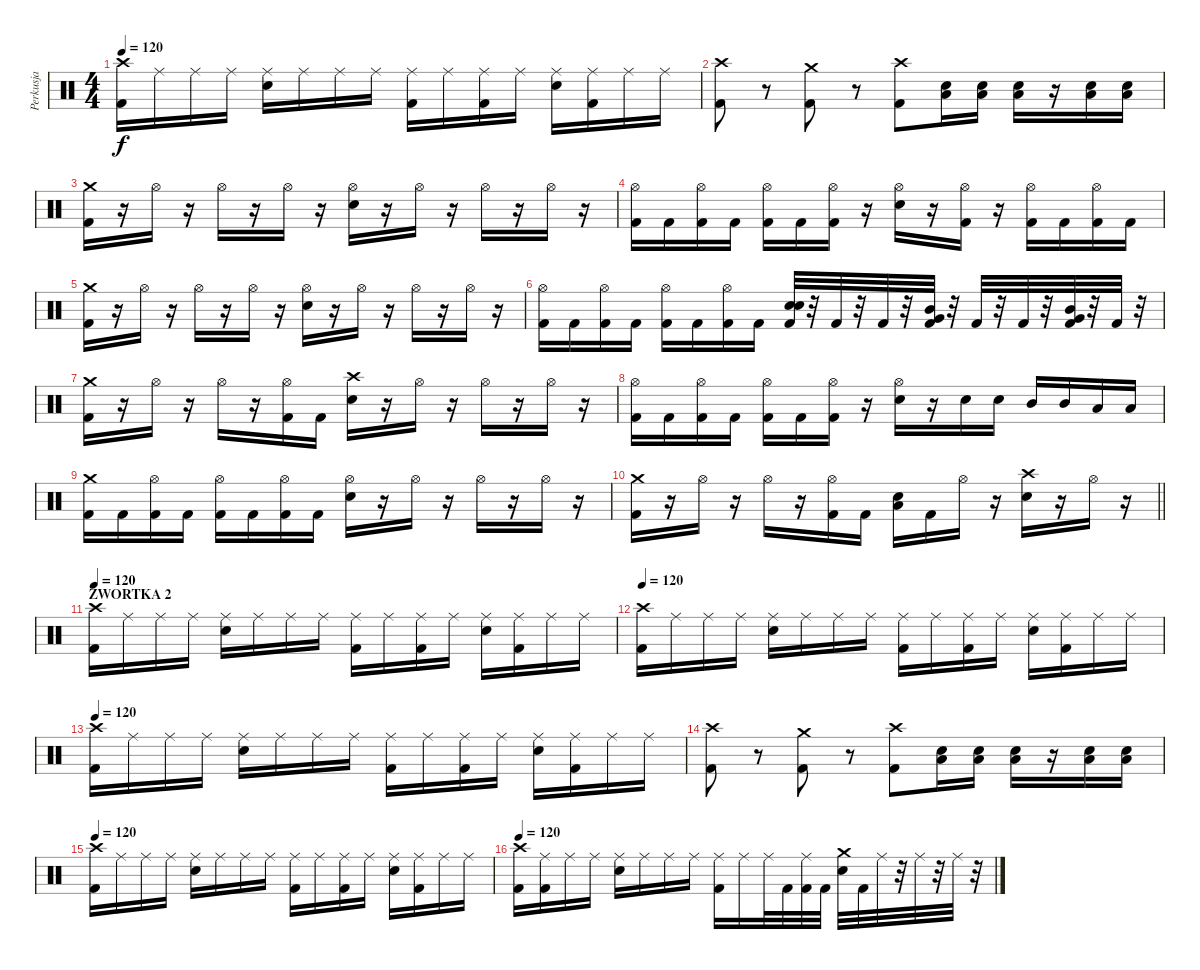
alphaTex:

\track ("Perkusja" "Perkusja") {instrument percussion}
\staff {score}
\articulation defaults
\ts (4 4)
\tempo 120
\clef neutral
\ks c
("Crash high (hit)" "Kick (hit) 2").16{dy f} "Ride (middle)".16 "Ride (middle)".16 "Ride (middle)".16 ("Ride (middle)" "Snare (hit) 2").16 "Ride (middle)".16 "Ride (middle)".16 "Ride (middle)".16 ("Ride (middle)" "Kick (hit) 2").16 "Ride (middle)".16 ("Ride (middle)" "Kick (hit) 2").16 "Ride (middle)".16 ("Ride (middle)" "Snare (hit) 2").16 ("Ride (middle)" "Kick (hit) 2").16 "Ride (middle)".16 "Ride (middle)".16 |
("Crash high (hit)" "Kick (hit) 2").8 r.8 ("Crash medium (hit)" "Kick (hit) 2").8 r.8 ("Crash high (hit)" "Kick (hit) 2").8 ("Snare (hit) 2" "Low Floor Tom (hit)").16 ("Snare (hit) 2" "Low Floor Tom (hit)").16 ("Snare (hit) 2" "Low Floor Tom (hit)").16 r.16 ("Snare (hit) 2" "Low Floor Tom (hit)").16 ("Snare (hit) 2" "Low Floor Tom (hit)").16 |
("Crash medium (hit)" "Kick (hit) 2").16 r.16 "Hi-Hat (open)".16 r.16 "Hi-Hat (open)".16 r.16 "Hi-Hat (open)".16 r.16 ("Hi-Hat (open)" "Snare (hit) 2").16 r.16 "Hi-Hat (open)".16 r.16 "Hi-Hat (open)".16 r.16 "Hi-Hat (open)".16 r.16 |
("Hi-Hat (open)" "Kick (hit) 2").16 "Kick (hit) 2".16 ("Hi-Hat (open)" "Kick (hit) 2").16 "Kick (hit) 2".16 ("Hi-Hat (open)" "Kick (hit) 2").16 "Kick (hit) 2".16 ("Hi-Hat (open)" "Kick (hit) 2").16 r.16 ("Hi-Hat (open)" "Snare (hit) 2").16 r.16 ("Hi-Hat (open)" "Kick (hit) 2").16 r.16 ("Hi-Hat (open)" "Kick (hit) 2").16 "Kick (hit) 2".16 ("Hi-Hat (open)" "Kick (hit) 2").16 "Kick (hit) 2".16 |
("Crash medium (hit)" "Kick (hit) 2").16 r.16 "Hi-Hat (open)".16 r.16 "Hi-Hat (open)".16 r.16 "Hi-Hat (open)".16 r.16 ("Hi-Hat (open)" "Snare (hit) 2").16 r.16 "Hi-Hat (open)".16 r.16 "Hi-Hat (open)".16 r.16 "Hi-Hat (open)".16 r.16 |
("Hi-Hat (open)" "Kick (hit) 2").16 "Kick (hit) 2".16 ("Hi-Hat (open)" "Kick (hit) 2").16 "Kick (hit) 2".16 ("Hi-Hat (open)" "Kick (hit) 2").16 "Kick (hit) 2".16 ("Hi-Hat (open)" "Kick (hit) 2").16 "Kick (hit) 2".16 ("Snare (hit) 2" "Snare (hit) 2" "Kick (hit) 2").32 r.32 "Kick (hit) 2".32 r.32 "Kick (hit) 2".32 r.32 ("Mid Tom (hit)" "Very Low Tom (hit)" "Kick (hit) 2").32 r.32 "Kick (hit) 2".32 r.32 "Kick (hit) 2".32 r.32 ("Mid Tom (hit)" "Very Low Tom (hit)" "Kick (hit) 2").32 r.32 "Kick (hit) 2".32 r.32 |
("Crash medium (hit)" "Kick (hit) 2").16 r.16 "Hi-Hat (open)".16 r.16 "Hi-Hat (open)".16 r.16 ("Hi-Hat (open)" "Kick (hit) 2").16 "Kick (hit) 2".16 ("Crash high (hit)" "Snare (hit) 2").16 r.16 "Hi-Hat (open)".16 r.16 "Hi-Hat (open)".16 r.16 "Hi-Hat (open)".16 r.16 |
("Hi-Hat (open)" "Kick (hit) 2").16 "Kick (hit) 2".16 ("Hi-Hat (open)" "Kick (hit) 2").16 "Kick (hit) 2".16 ("Hi-Hat (open)" "Kick (hit) 2").16 "Kick (hit) 2".16 ("Hi-Hat (open)" "Kick (hit) 2").16 r.16 ("Hi-Hat (open)" "Snare (hit) 2").16 r.16 "Snare (hit) 2".16 "Snare (hit) 2".16 "Mid Tom (hit)".16 "Mid Tom (hit)".16 "Low Tom (hit)".16 "Low Tom (hit)".16 |
("Crash medium (hit)" "Kick (hit) 2").16 "Kick (hit) 2".16 ("Hi-Hat (open)" "Kick (hit) 2").16 "Kick (hit) 2".16 ("Hi-Hat (open)" "Kick (hit) 2").16 "Kick (hit) 2".16 ("Hi-Hat (open)" "Kick (hit) 2").16 "Kick (hit) 2".16 ("Hi-Hat (open)" "Snare (hit) 2").16 r.16 "Hi-Hat (open)".16 r.16 "Hi-Hat (open)".16 r.16 "Hi-Hat (open)".16 r.16 |
\barLineRight lightlight
("Crash medium (hit)" "Kick (hit) 2").16 r.16 "Hi-Hat (open)".16 r.16 "Hi-Hat (open)".16 r.16 ("Hi-Hat (open)" "Kick (hit) 2").16 "Kick (hit) 2".16 ("Snare (hit) 2" "Low Floor Tom (hit)").16 "Kick (hit) 2".16 "Hi-Hat (open)".16 r.16 ("Crash high (hit)" "Snare (hit) 2").16 r.16 "Hi-Hat (open)".16 r.16 |
\section ("" "ZWORTKA 2")
\tempo 120
("Crash high (hit)" "Kick (hit) 2").16 "Ride (middle)".16 "Ride (middle)".16 "Ride (middle)".16 ("Ride (middle)" "Snare (hit) 2").16 "Ride (middle)".16 "Ride (middle)".16 "Ride (middle)".16 ("Ride (middle)" "Kick (hit) 2").16 "Ride (middle)".16 ("Ride (middle)" "Kick (hit) 2").16 "Ride (middle)".16 ("Ride (middle)" "Snare (hit) 2").16 ("Ride (middle)" "Kick (hit) 2").16 "Ride (middle)".16 "Ride (middle)".16 |
\tempo 120
("Crash high (hit)" "Kick (hit) 2").16 "Ride (middle)".16 "Ride (middle)".16 "Ride (middle)".16 ("Ride (middle)" "Snare (hit) 2").16 "Ride (middle)".16 "Ride (middle)".16 "Ride (middle)".16 ("Ride (middle)" "Kick (hit) 2").16 "Ride (middle)".16 ("Ride (middle)" "Kick (hit) 2").16 "Ride (middle)".16 ("Ride (middle)" "Snare (hit) 2").16 ("Ride (middle)" "Kick (hit) 2").16 "Ride (middle)".16 "Ride (middle)".16 |
\tempo 120
("Crash high (hit)" "Kick (hit) 2").16 "Ride (middle)".16 "Ride (middle)".16 "Ride (middle)".16 ("Ride (middle)" "Snare (hit) 2").16 "Ride (middle)".16 "Ride (middle)".16 "Ride (middle)".16 ("Ride (middle)" "Kick (hit) 2").16 "Ride (middle)".16 ("Ride (middle)" "Kick (hit) 2").16 "Ride (middle)".16 ("Ride (middle)" "Snare (hit) 2").16 ("Ride (middle)" "Kick (hit) 2").16 "Ride (middle)".16 "Ride (middle)".16 |
("Crash high (hit)" "Kick (hit) 2").8 r.8 ("Crash medium (hit)" "Kick (hit) 2").8 r.8 ("Crash high (hit)" "Kick (hit) 2").8 ("Snare (hit) 2" "Low Floor Tom (hit)").16 ("Snare (hit) 2" "Low Floor Tom (hit)").16 ("Snare (hit) 2" "Low Floor Tom (hit)").16 r.16 ("Snare (hit) 2" "Low Floor Tom (hit)").16 ("Snare (hit) 2" "Low Floor Tom (hit)").16 |
\tempo 120
("Crash high (hit)" "Kick (hit) 2").16 "Ride (middle)".16 "Ride (middle)".16 "Ride (middle)".16 ("Ride (middle)" "Snare (hit) 2").16 "Ride (middle)".16 "Ride (middle)".16 "Ride (middle)".16 ("Ride (middle)" "Kick (hit) 2").16 "Ride (middle)".16 ("Ride (middle)" "Kick (hit) 2").16 "Ride (middle)".16 ("Ride (middle)" "Snare (hit) 2").16 ("Ride (middle)" "Kick (hit) 2").16 "Ride (middle)".16 "Ride (middle)".16 |
\tempo 120
("Crash high (hit)" "Kick (hit) 2").16 ("Ride (middle)" "Kick (hit) 2").16 "Ride (middle)".16 "Ride (middle)".16 ("Ride (middle)" "Snare (hit) 2").16 "Ride (middle)".16 "Ride (middle)".16 "Ride (middle)".16 ("Ride (middle)" "Kick (hit) 2").16 "Ride (middle)".16 "Ride (middle)".32 "Kick (hit) 2".32 ("Ride (middle)" "Kick (hit) 2").32 "Kick (hit) 2".32 ("Crash medium (hit)" "Snare (hit) 2").32 "Kick (hit) 2".32 "Ride (middle)".32 r.32 "Ride (middle)".32 r.32 "Ride (middle)".32 r.32
